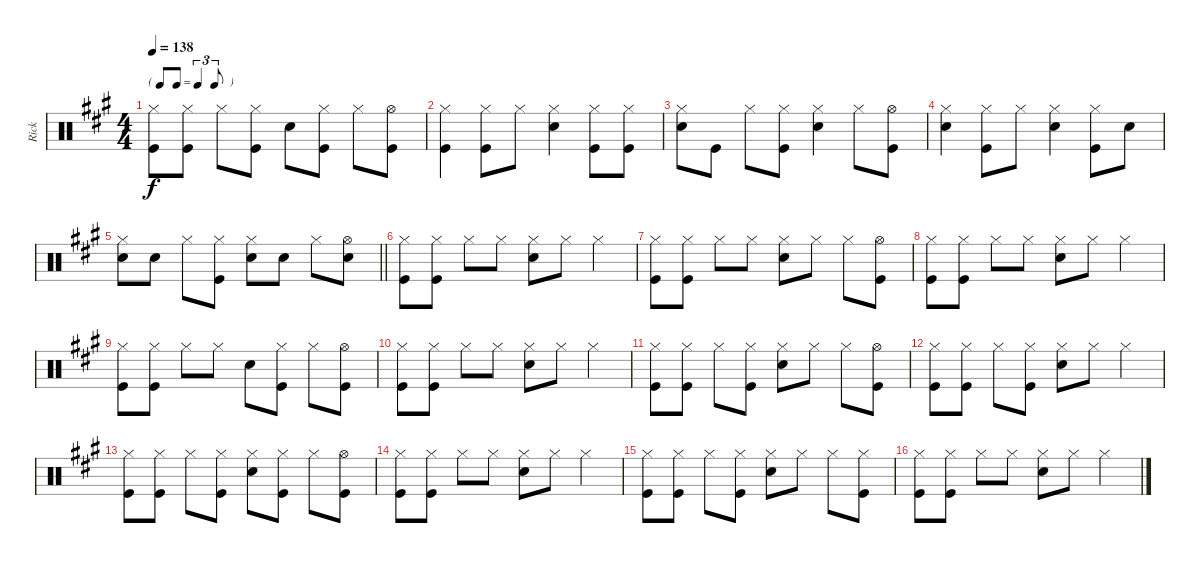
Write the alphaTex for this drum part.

\track ("Rick" "Rick") {instrument percussion}
\staff {score}
\articulation defaults
\ts (4 4)
\tf triplet8th
\tempo 138
\clef neutral
\ks a
("Hi-Hat (closed)" "Kick (hit)").8{dy f} ("Hi-Hat (closed)" "Kick (hit)").8 "Hi-Hat (closed)".8 ("Hi-Hat (closed)" "Kick (hit)").8 "Snare (hit) 2".8 ("Hi-Hat (closed)" "Kick (hit)").8 "Hi-Hat (closed)".8 ("Hi-Hat (open)" "Kick (hit)").8 |
("Hi-Hat (closed)" "Kick (hit)").4 ("Hi-Hat (closed)" "Kick (hit)").8 "Hi-Hat (closed)".8 ("Hi-Hat (closed)" "Snare (hit) 2").4 ("Hi-Hat (closed)" "Kick (hit)").8 ("Hi-Hat (closed)" "Kick (hit)").8 |
("Hi-Hat (closed)" "Snare (hit) 2").8 "Kick (hit)".8 "Hi-Hat (closed)".8 ("Hi-Hat (closed)" "Kick (hit)").8 ("Hi-Hat (closed)" "Snare (hit) 2").4 "Hi-Hat (closed)".8 ("Hi-Hat (open)" "Kick (hit)").8 |
("Hi-Hat (closed)" "Snare (hit) 2").4 ("Hi-Hat (closed)" "Kick (hit)").8 "Hi-Hat (closed)".8 ("Hi-Hat (closed)" "Snare (hit) 2").4 ("Hi-Hat (closed)" "Kick (hit)").8 "Snare (hit) 2".8 |
\barLineRight lightlight
("Hi-Hat (closed)" "Snare (hit) 2").8 "Snare (hit) 2".8 "Hi-Hat (closed)".8 ("Hi-Hat (closed)" "Kick (hit)").8 ("Hi-Hat (closed)" "Snare (hit) 2").8 "Snare (hit) 2".8 "Hi-Hat (closed)".8 ("Hi-Hat (open)" "Snare (hit) 2").8 |
("Hi-Hat (closed)" "Kick (hit)").8 ("Hi-Hat (closed)" "Kick (hit)").8 "Hi-Hat (closed)".8 "Hi-Hat (closed)".8 ("Hi-Hat (closed)" "Snare (hit) 2").8 "Hi-Hat (closed)".8 "Hi-Hat (closed)".4 |
("Hi-Hat (closed)" "Kick (hit)").8 ("Hi-Hat (closed)" "Kick (hit)").8 "Hi-Hat (closed)".8 "Hi-Hat (closed)".8 ("Hi-Hat (closed)" "Snare (hit) 2").8 "Hi-Hat (closed)".8 "Hi-Hat (closed)".8 ("Hi-Hat (open)" "Kick (hit)").8 |
("Hi-Hat (closed)" "Kick (hit)").8 ("Hi-Hat (closed)" "Kick (hit)").8 "Hi-Hat (closed)".8 "Hi-Hat (closed)".8 ("Hi-Hat (closed)" "Snare (hit) 2").8 "Hi-Hat (closed)".8 "Hi-Hat (closed)".4 |
("Hi-Hat (closed)" "Kick (hit)").8 ("Hi-Hat (closed)" "Kick (hit)").8 "Hi-Hat (closed)".8 "Hi-Hat (closed)".8 "Snare (hit) 2".8 ("Hi-Hat (closed)" "Kick (hit)").8 "Hi-Hat (closed)".8 ("Hi-Hat (open)" "Kick (hit)").8 |
("Hi-Hat (closed)" "Kick (hit)").8 ("Hi-Hat (closed)" "Kick (hit)").8 "Hi-Hat (closed)".8 "Hi-Hat (closed)".8 ("Hi-Hat (closed)" "Snare (hit) 2").8 "Hi-Hat (closed)".8 "Hi-Hat (closed)".4 |
("Hi-Hat (closed)" "Kick (hit)").8 ("Hi-Hat (closed)" "Kick (hit)").8 "Hi-Hat (closed)".8 ("Hi-Hat (closed)" "Kick (hit)").8 ("Hi-Hat (closed)" "Snare (hit) 2").8 "Hi-Hat (closed)".8 "Hi-Hat (closed)".8 ("Hi-Hat (open)" "Kick (hit)").8 |
("Hi-Hat (closed)" "Kick (hit)").8 ("Hi-Hat (closed)" "Kick (hit)").8 "Hi-Hat (closed)".8 ("Hi-Hat (closed)" "Kick (hit)").8 ("Hi-Hat (closed)" "Snare (hit) 2").8 "Hi-Hat (closed)".8 "Hi-Hat (closed)".4 |
("Hi-Hat (closed)" "Kick (hit)").8 ("Hi-Hat (closed)" "Kick (hit)").8 "Hi-Hat (closed)".8 ("Hi-Hat (closed)" "Kick (hit)").8 ("Hi-Hat (closed)" "Snare (hit) 2").8 ("Hi-Hat (closed)" "Kick (hit)").8 "Hi-Hat (closed)".8 ("Hi-Hat (open)" "Kick (hit)").8 |
("Hi-Hat (closed)" "Kick (hit)").8 ("Hi-Hat (closed)" "Kick (hit)").8 "Hi-Hat (closed)".8 "Hi-Hat (closed)".8 ("Hi-Hat (closed)" "Snare (hit) 2").8 "Hi-Hat (closed)".8 "Hi-Hat (closed)".4 |
("Hi-Hat (closed)" "Kick (hit)").8 ("Hi-Hat (closed)" "Kick (hit)").8 "Hi-Hat (closed)".8 ("Hi-Hat (closed)" "Kick (hit)").8 ("Hi-Hat (closed)" "Snare (hit) 2").8 "Hi-Hat (closed)".8 "Hi-Hat (closed)".8 ("Hi-Hat (closed)" "Kick (hit)").8 |
("Hi-Hat (closed)" "Kick (hit)").8 ("Hi-Hat (closed)" "Kick (hit)").8 "Hi-Hat (closed)".8 "Hi-Hat (closed)".8 ("Hi-Hat (closed)" "Snare (hit) 2").8 "Hi-Hat (closed)".8 "Hi-Hat (closed)".4
